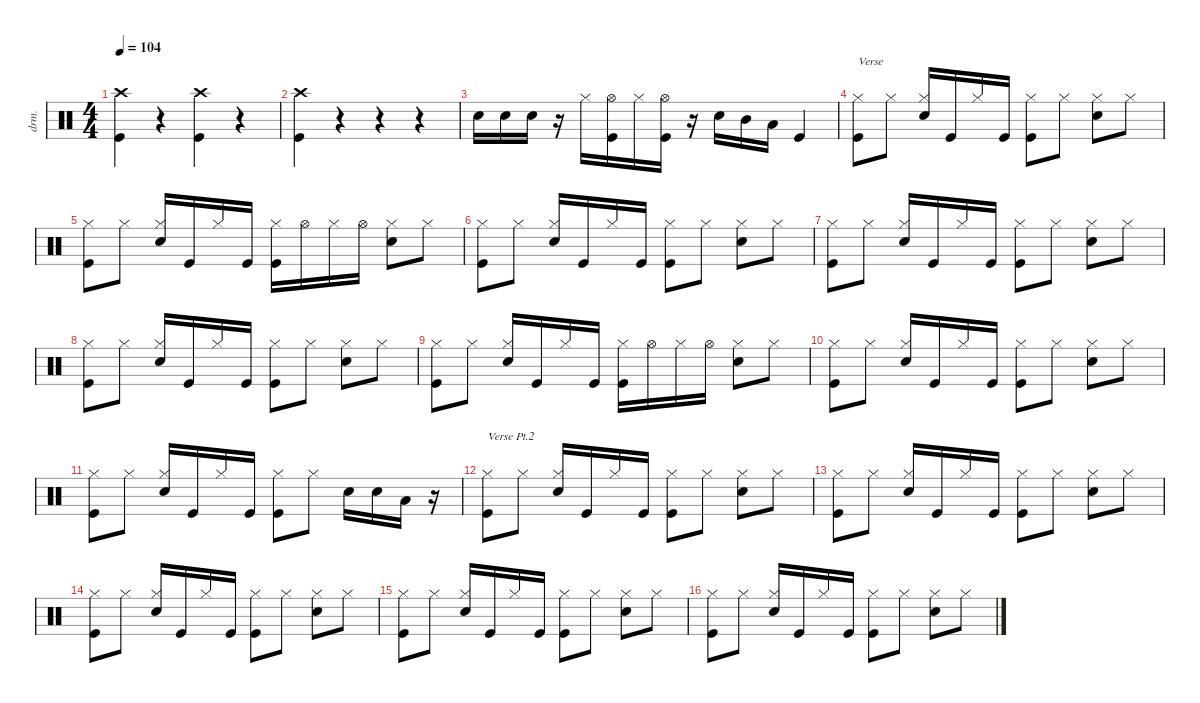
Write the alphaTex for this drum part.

\defaultSystemsLayout 4
\hideDynamics
\bracketExtendMode nobrackets
\otherSystemsTrackNameOrientation horizontal
\track ("Drumkit" "drm.") {instrument percussion}
\staff {score}
\articulation defaults
\ts (4 4)
\tempo 104
\clef neutral
\ks c
("Crash high (hit)" "Kick (hit)").4{dy mf beam Down} r.4{beam Down} ("Crash high (hit)" "Kick (hit)").4{beam Down} r.4{beam Down} |
("Crash high (hit)" "Kick (hit)").4{beam Down} r.4{beam Down} r.4{beam Down} r.4{beam Down} |
"Snare (hit) 2".16{beam Down} "Snare (hit) 2".16{beam Down} "Snare (hit) 2".16{beam Down} r.16{beam Down} "Hi-Hat (closed)".16{beam Down} ("Hi-Hat (open)" "Kick (hit)").16{beam Down} "Hi-Hat (closed)".16{beam Down} ("Hi-Hat (open)" "Kick (hit)").16{beam Down} r.16{beam Down} "Snare (hit) 2".16{beam Down} "Mid Tom (hit)".16{beam Down} "Low Tom (hit)".16{beam Down} "Kick (hit)".4{beam Up} |
("Kick (hit)" "Hi-Hat (closed)").8{txt "Verse" beam Down} "Hi-Hat (closed)".8{beam Down} ("Hi-Hat (closed)" "Snare (hit) 2").16{beam Up} "Kick (hit)".16{beam Up} "Hi-Hat (closed)".16{beam Up} "Kick (hit)".16{beam Up} ("Hi-Hat (closed)" "Kick (hit)").8{beam Down} "Hi-Hat (closed)".8{beam Down} ("Hi-Hat (closed)" "Snare (hit) 2").8{beam Down} "Hi-Hat (closed)".8{beam Down} |
("Kick (hit)" "Hi-Hat (closed)").8{beam Down} "Hi-Hat (closed)".8{beam Down} ("Hi-Hat (closed)" "Snare (hit) 2").16{beam Up} "Kick (hit)".16{beam Up} "Hi-Hat (closed)".16{beam Up} "Kick (hit)".16{beam Up} ("Kick (hit)" "Hi-Hat (closed)").16{beam Down} "Hi-Hat (open)".16{beam Down} "Hi-Hat (closed)".16{beam Down} "Hi-Hat (open)".16{beam Down} ("Snare (hit) 2" "Hi-Hat (closed)").8{beam Down} "Hi-Hat (closed)".8{beam Down} |
("Kick (hit)" "Hi-Hat (closed)").8{beam Down} "Hi-Hat (closed)".8{beam Down} ("Hi-Hat (closed)" "Snare (hit) 2").16{beam Up} "Kick (hit)".16{beam Up} "Hi-Hat (closed)".16{beam Up} "Kick (hit)".16{beam Up} ("Hi-Hat (closed)" "Kick (hit)").8{beam Down} "Hi-Hat (closed)".8{beam Down} ("Hi-Hat (closed)" "Snare (hit) 2").8{beam Down} "Hi-Hat (closed)".8{beam Down} |
("Kick (hit)" "Hi-Hat (closed)").8{beam Down} "Hi-Hat (closed)".8{beam Down} ("Hi-Hat (closed)" "Snare (hit) 2").16{beam Up} "Kick (hit)".16{beam Up} "Hi-Hat (closed)".16{beam Up} "Kick (hit)".16{beam Up} ("Hi-Hat (closed)" "Kick (hit)").8{beam Down} "Hi-Hat (closed)".8{beam Down} ("Hi-Hat (closed)" "Snare (hit) 2").8{beam Down} "Hi-Hat (closed)".8{beam Down} |
("Kick (hit)" "Hi-Hat (closed)").8{beam Down} "Hi-Hat (closed)".8{beam Down} ("Hi-Hat (closed)" "Snare (hit) 2").16{beam Up} "Kick (hit)".16{beam Up} "Hi-Hat (closed)".16{beam Up} "Kick (hit)".16{beam Up} ("Hi-Hat (closed)" "Kick (hit)").8{beam Down} "Hi-Hat (closed)".8{beam Down} ("Hi-Hat (closed)" "Snare (hit) 2").8{beam Down} "Hi-Hat (closed)".8{beam Down} |
("Kick (hit)" "Hi-Hat (closed)").8{beam Down} "Hi-Hat (closed)".8{beam Down} ("Hi-Hat (closed)" "Snare (hit) 2").16{beam Up} "Kick (hit)".16{beam Up} "Hi-Hat (closed)".16{beam Up} "Kick (hit)".16{beam Up} ("Kick (hit)" "Hi-Hat (closed)").16{beam Down} "Hi-Hat (open)".16{beam Down} "Hi-Hat (closed)".16{beam Down} "Hi-Hat (open)".16{beam Down} ("Snare (hit) 2" "Hi-Hat (closed)").8{beam Down} "Hi-Hat (closed)".8{beam Down} |
("Kick (hit)" "Hi-Hat (closed)").8{beam Down} "Hi-Hat (closed)".8{beam Down} ("Hi-Hat (closed)" "Snare (hit) 2").16{beam Up} "Kick (hit)".16{beam Up} "Hi-Hat (closed)".16{beam Up} "Kick (hit)".16{beam Up} ("Hi-Hat (closed)" "Kick (hit)").8{beam Down} "Hi-Hat (closed)".8{beam Down} ("Hi-Hat (closed)" "Snare (hit) 2").8{beam Down} "Hi-Hat (closed)".8{beam Down} |
("Kick (hit)" "Hi-Hat (closed)").8{beam Down} "Hi-Hat (closed)".8{beam Down} ("Hi-Hat (closed)" "Snare (hit) 2").16{beam Up} "Kick (hit)".16{beam Up} "Hi-Hat (closed)".16{beam Up} "Kick (hit)".16{beam Up} ("Hi-Hat (closed)" "Kick (hit)").8{beam Down} "Hi-Hat (closed)".8{beam Down} "Snare (hit) 2".16{beam Down} "Snare (hit) 2".16{beam Down} "Low Tom (hit)".16{beam Down} r.16{beam Down} |
("Kick (hit)" "Hi-Hat (closed)").8{txt "Verse Pt.2" beam Down} "Hi-Hat (closed)".8{beam Down} ("Hi-Hat (closed)" "Snare (hit) 2").16{beam Up} "Kick (hit)".16{beam Up} "Hi-Hat (closed)".16{beam Up} "Kick (hit)".16{beam Up} ("Hi-Hat (closed)" "Kick (hit)").8{beam Down} "Hi-Hat (closed)".8{beam Down} ("Hi-Hat (closed)" "Snare (hit) 2").8{beam Down} "Hi-Hat (closed)".8{beam Down} |
("Kick (hit)" "Hi-Hat (closed)").8{beam Down} "Hi-Hat (closed)".8{beam Down} ("Hi-Hat (closed)" "Snare (hit) 2").16{beam Up} "Kick (hit)".16{beam Up} "Hi-Hat (closed)".16{beam Up} "Kick (hit)".16{beam Up} ("Hi-Hat (closed)" "Kick (hit)").8{beam Down} "Hi-Hat (closed)".8{beam Down} ("Hi-Hat (closed)" "Snare (hit) 2").8{beam Down} "Hi-Hat (closed)".8{beam Down} |
("Kick (hit)" "Hi-Hat (closed)").8{beam Down} "Hi-Hat (closed)".8{beam Down} ("Hi-Hat (closed)" "Snare (hit) 2").16{beam Up} "Kick (hit)".16{beam Up} "Hi-Hat (closed)".16{beam Up} "Kick (hit)".16{beam Up} ("Hi-Hat (closed)" "Kick (hit)").8{beam Down} "Hi-Hat (closed)".8{beam Down} ("Hi-Hat (closed)" "Snare (hit) 2").8{beam Down} "Hi-Hat (closed)".8{beam Down} |
("Kick (hit)" "Hi-Hat (closed)").8{beam Down} "Hi-Hat (closed)".8{beam Down} ("Hi-Hat (closed)" "Snare (hit) 2").16{beam Up} "Kick (hit)".16{beam Up} "Hi-Hat (closed)".16{beam Up} "Kick (hit)".16{beam Up} ("Hi-Hat (closed)" "Kick (hit)").8{beam Down} "Hi-Hat (closed)".8{beam Down} ("Hi-Hat (closed)" "Snare (hit) 2").8{beam Down} "Hi-Hat (closed)".8{beam Down} |
("Kick (hit)" "Hi-Hat (closed)").8{beam Down} "Hi-Hat (closed)".8{beam Down} ("Hi-Hat (closed)" "Snare (hit) 2").16{beam Up} "Kick (hit)".16{beam Up} "Hi-Hat (closed)".16{beam Up} "Kick (hit)".16{beam Up} ("Hi-Hat (closed)" "Kick (hit)").8{beam Down} "Hi-Hat (closed)".8{beam Down} ("Hi-Hat (closed)" "Snare (hit) 2").8{beam Down} "Hi-Hat (closed)".8{beam Down}
